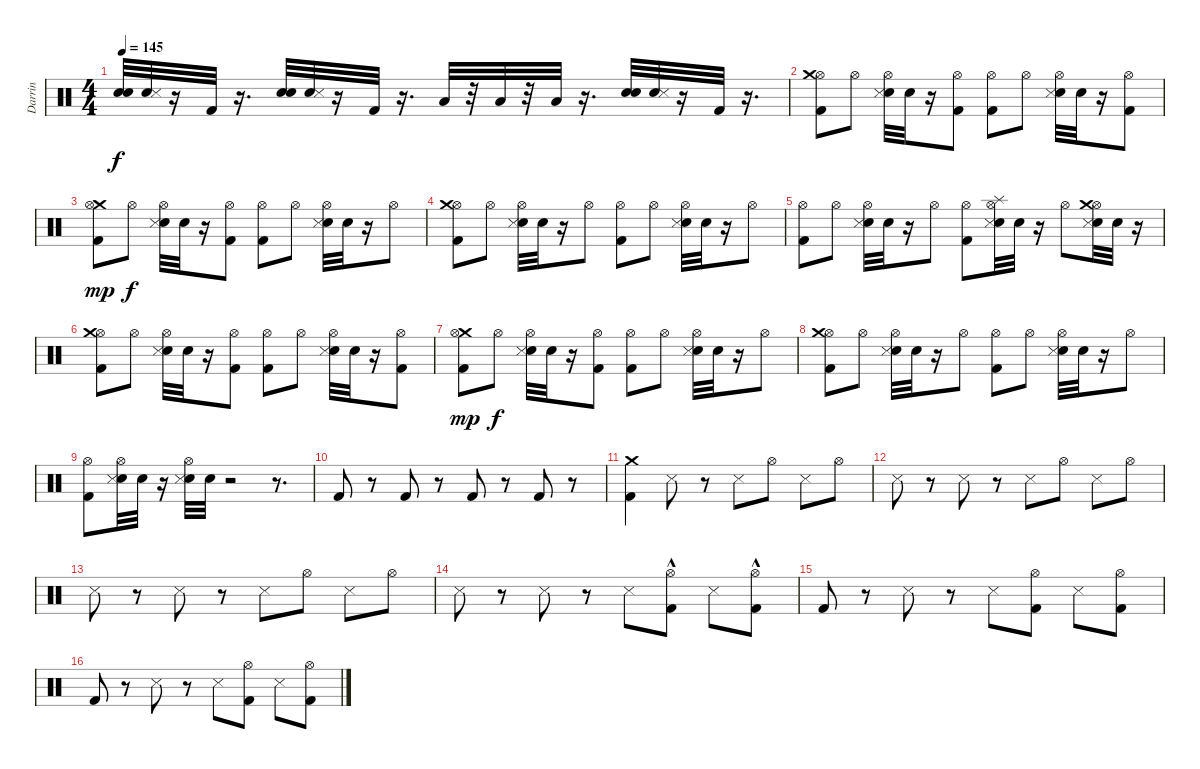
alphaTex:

\track ("Darrin" "Darrin") {instrument percussion}
\staff {score}
\articulation defaults
\ts (4 4)
\tempo 145
\clef neutral
\ks c
("Snare (hit) 2" "Snare (hit) 2").32{dy f volume 16} ("Snare (hit) 2" "Snare (side stick) 3").32 r.16 "Kick (hit) 2".32 r.16{d} ("Snare (hit) 2" "Snare (hit) 2").32 ("Snare (hit) 2" "Snare (side stick) 3").32 r.16 "Kick (hit) 2".32 r.16{d} "Low Floor Tom (hit)".32 r.32 "Low Floor Tom (hit)".32 r.32 "Low Floor Tom (hit)".32 r.16{d} ("Snare (hit) 2" "Snare (hit) 2").32 ("Snare (hit) 2" "Snare (side stick) 3").32 r.16 "Kick (hit) 2".32 r.16{d} |
("Kick (hit) 2" "Hi-Hat (open)" "Crash medium (hit)").8 "Hi-Hat (open)".8 ("Snare (hit) 2" "Snare (side stick) 3" "Hi-Hat (open)").32 "Snare (hit) 2".32 r.16 ("Hi-Hat (open)" "Kick (hit) 2").8 ("Kick (hit) 2" "Hi-Hat (open)").8 "Hi-Hat (open)".8 ("Snare (hit) 2" "Snare (side stick) 3" "Hi-Hat (open)").32 "Snare (hit) 2".32 r.16 ("Hi-Hat (open)" "Kick (hit) 2").8 |
("Crash medium (hit)" "Kick (hit) 2" "Hi-Hat (open)").8{dy mp} "Hi-Hat (open)".8{dy f} ("Snare (hit) 2" "Snare (side stick) 3" "Hi-Hat (open)").32 "Snare (hit) 2".32 r.16 ("Hi-Hat (open)" "Kick (hit) 2").8 ("Kick (hit) 2" "Hi-Hat (open)").8 "Hi-Hat (open)".8 ("Snare (hit) 2" "Snare (side stick) 3" "Hi-Hat (open)").32 "Snare (hit) 2".32 r.16 "Hi-Hat (open)".8 |
("Kick (hit) 2" "Hi-Hat (open)" "Crash medium (hit)").8 "Hi-Hat (open)".8 ("Snare (hit) 2" "Snare (side stick) 3" "Hi-Hat (open)").32 "Snare (hit) 2".32 r.16 "Hi-Hat (open)".8 ("Kick (hit) 2" "Hi-Hat (open)").8 "Hi-Hat (open)".8 ("Snare (hit) 2" "Snare (side stick) 3" "Hi-Hat (open)").32 "Snare (hit) 2".32 r.16 "Hi-Hat (open)".8 |
("Kick (hit) 2" "Hi-Hat (open)").8 "Hi-Hat (open)".8 ("Snare (hit) 2" "Snare (side stick) 3" "Hi-Hat (open)").32 "Snare (hit) 2".32 r.16 "Hi-Hat (open)".8 ("Kick (hit) 2" "Hi-Hat (open)").8 ("Hi-Hat (open)" "Snare (hit) 2" "Snare (side stick) 3" "Splash (hit)").32 "Snare (hit) 2".32 r.16 "Hi-Hat (open)".8 ("Hi-Hat (open)" "Snare (hit) 2" "Snare (side stick) 3" "Crash medium (hit)").32 "Snare (hit) 2".32 r.16 |
("Kick (hit) 2" "Hi-Hat (open)" "Crash medium (hit)").8 "Hi-Hat (open)".8 ("Snare (hit) 2" "Snare (side stick) 3" "Hi-Hat (open)").32 "Snare (hit) 2".32 r.16 ("Hi-Hat (open)" "Kick (hit) 2").8 ("Kick (hit) 2" "Hi-Hat (open)").8 "Hi-Hat (open)".8 ("Snare (hit) 2" "Snare (side stick) 3" "Hi-Hat (open)").32 "Snare (hit) 2".32 r.16 ("Hi-Hat (open)" "Kick (hit) 2").8 |
("Crash medium (hit)" "Kick (hit) 2" "Hi-Hat (open)").8{dy mp} "Hi-Hat (open)".8{dy f} ("Snare (hit) 2" "Snare (side stick) 3" "Hi-Hat (open)").32 "Snare (hit) 2".32 r.16 ("Hi-Hat (open)" "Kick (hit) 2").8 ("Kick (hit) 2" "Hi-Hat (open)").8 "Hi-Hat (open)".8 ("Snare (hit) 2" "Snare (side stick) 3" "Hi-Hat (open)").32 "Snare (hit) 2".32 r.16 "Hi-Hat (open)".8 |
("Kick (hit) 2" "Hi-Hat (open)" "Crash medium (hit)").8 "Hi-Hat (open)".8 ("Snare (hit) 2" "Snare (side stick) 3" "Hi-Hat (open)").32 "Snare (hit) 2".32 r.16 "Hi-Hat (open)".8 ("Kick (hit) 2" "Hi-Hat (open)").8 "Hi-Hat (open)".8 ("Hi-Hat (open)" "Snare (hit) 2" "Snare (side stick) 3").32 "Snare (hit) 2".32 r.16 "Hi-Hat (open)".8 |
("Hi-Hat (open)" "Kick (hit) 2").8 ("Hi-Hat (open)" "Snare (hit) 2" "Snare (side stick) 3").32 "Snare (hit) 2".32 r.16 ("Hi-Hat (open)" "Snare (hit) 2" "Snare (side stick) 3").32 "Snare (hit) 2".32 r.2 r.8{d} |
"Kick (hit) 2".8 r.8 "Kick (hit) 2".8 r.8 "Kick (hit) 2".8 r.8 "Kick (hit) 2".8 r.8 |
("Crash medium (hit)" "Kick (hit) 2").4 "Snare (side stick) 3".8 r.8 "Snare (side stick) 3".8 "Hi-Hat (open)".8 "Snare (side stick) 3".8 "Hi-Hat (open)".8 |
"Snare (side stick) 3".8 r.8 "Snare (side stick) 3".8 r.8 "Snare (side stick) 3".8 "Hi-Hat (open)".8 "Snare (side stick) 3".8 "Hi-Hat (open)".8 |
"Snare (side stick) 3".8 r.8 "Snare (side stick) 3".8 r.8 "Snare (side stick) 3".8 "Hi-Hat (open)".8 "Snare (side stick) 3".8 "Hi-Hat (open)".8 |
"Snare (side stick) 3".8 r.8 "Snare (side stick) 3".8 r.8 "Snare (side stick) 3".8 ("Hi-Hat (open)" "Kick (hit) 2"{hac}).8 "Snare (side stick) 3".8 ("Hi-Hat (open)" "Kick (hit) 2"{hac}).8 |
"Kick (hit) 2".8 r.8 "Snare (side stick) 3".8 r.8 "Snare (side stick) 3".8 ("Hi-Hat (open)" "Kick (hit) 2").8 "Snare (side stick) 3".8 ("Hi-Hat (open)" "Kick (hit) 2").8 |
"Kick (hit) 2".8 r.8 "Snare (side stick) 3".8 r.8 "Snare (side stick) 3".8 ("Hi-Hat (open)" "Kick (hit) 2").8 "Snare (side stick) 3".8 ("Hi-Hat (open)" "Kick (hit) 2").8
